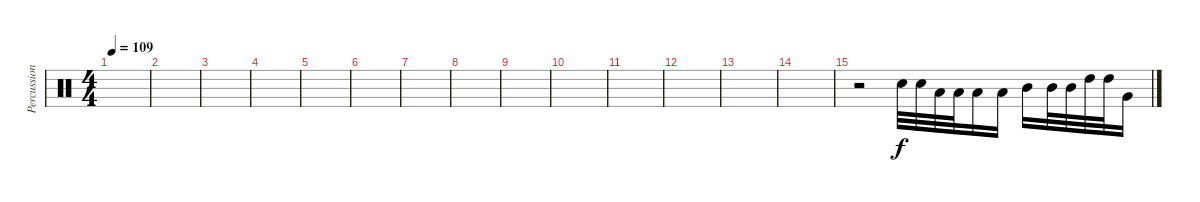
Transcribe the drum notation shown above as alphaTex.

\track ("Percussions" "Percussion") {instrument percussion}
\staff {score}
\articulation defaults
\ts (4 4)
\tempo 109
\clef neutral
\ks c
|
|
|
|
|
|
|
|
|
|
|
|
|
|
r.2 "Electric Snare (hit)".32 "Electric Snare (hit)".32 "Low Tom (hit)".32 "Low Tom (hit)".32 "Low Tom (hit)".16 "Low Tom (hit)".16 "Mid Tom (hit)".16 "Mid Tom (hit)".32 "Mid Tom (hit)".32 "High Tom (hit)".32 "High Tom (hit)".32 "Very Low Tom (hit)".16
